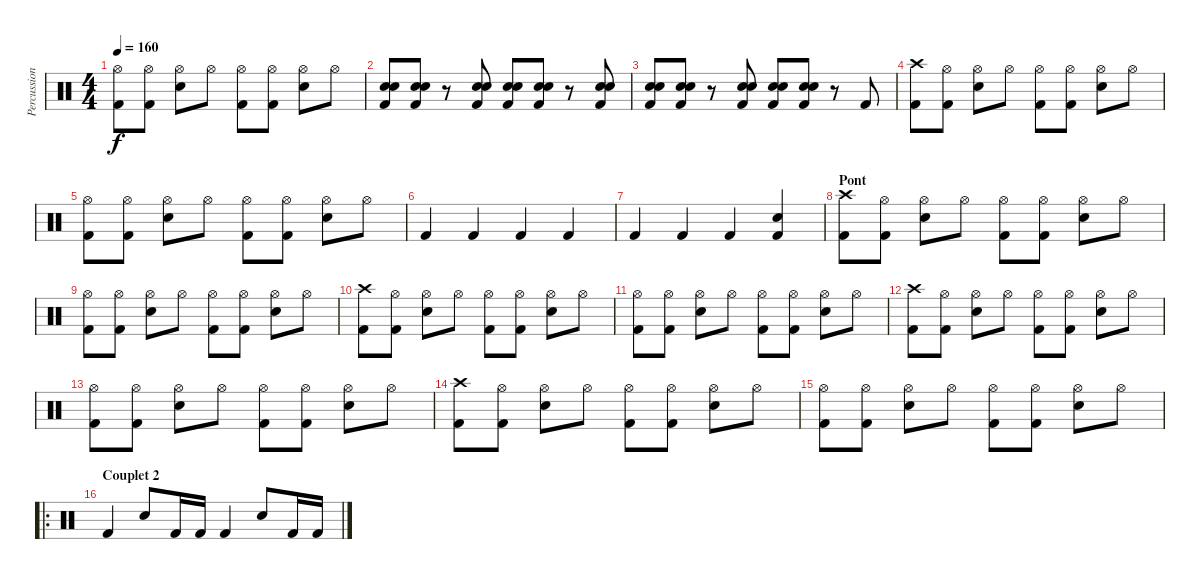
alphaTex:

\track ("Percussions" "Percussion") {instrument percussion}
\staff {score}
\articulation defaults
\ts (4 4)
\tempo 160
\clef neutral
\ks c
("Hi-Hat (open)" "Kick (hit) 2").8{dy f} ("Hi-Hat (open)" "Kick (hit) 2").8 ("Hi-Hat (open)" "Electric Snare (hit)").8 "Hi-Hat (open)".8 ("Hi-Hat (open)" "Kick (hit) 2").8 ("Hi-Hat (open)" "Kick (hit) 2").8 ("Hi-Hat (open)" "Electric Snare (hit)").8 "Hi-Hat (open)".8 |
("Electric Snare (hit)" "Electric Snare (hit)" "Kick (hit) 2").8 ("Electric Snare (hit)" "Electric Snare (hit)" "Kick (hit) 2").8 r.8 ("Electric Snare (hit)" "Electric Snare (hit)" "Kick (hit) 2").8 ("Electric Snare (hit)" "Electric Snare (hit)" "Kick (hit) 2").8 ("Electric Snare (hit)" "Electric Snare (hit)" "Kick (hit) 2").8 r.8 ("Electric Snare (hit)" "Electric Snare (hit)" "Kick (hit) 2").8 |
("Electric Snare (hit)" "Electric Snare (hit)" "Kick (hit) 2").8 ("Electric Snare (hit)" "Electric Snare (hit)" "Kick (hit) 2").8 r.8 ("Electric Snare (hit)" "Electric Snare (hit)" "Kick (hit) 2").8 ("Electric Snare (hit)" "Electric Snare (hit)" "Kick (hit) 2").8 ("Electric Snare (hit)" "Electric Snare (hit)" "Kick (hit) 2").8 r.8 "Kick (hit) 2".8 |
("Crash high (hit)" "Kick (hit) 2").8 ("Hi-Hat (open)" "Kick (hit) 2").8 ("Hi-Hat (open)" "Electric Snare (hit)").8 "Hi-Hat (open)".8 ("Hi-Hat (open)" "Kick (hit) 2").8 ("Hi-Hat (open)" "Kick (hit) 2").8 ("Hi-Hat (open)" "Electric Snare (hit)").8 "Hi-Hat (open)".8 |
("Hi-Hat (open)" "Kick (hit) 2").8 ("Hi-Hat (open)" "Kick (hit) 2").8 ("Hi-Hat (open)" "Electric Snare (hit)").8 "Hi-Hat (open)".8 ("Hi-Hat (open)" "Kick (hit) 2").8 ("Hi-Hat (open)" "Kick (hit) 2").8 ("Hi-Hat (open)" "Electric Snare (hit)").8 "Hi-Hat (open)".8 |
"Kick (hit) 2".4 "Kick (hit) 2".4 "Kick (hit) 2".4 "Kick (hit) 2".4 |
"Kick (hit) 2".4 "Kick (hit) 2".4 "Kick (hit) 2".4 ("Electric Snare (hit)" "Kick (hit) 2").4 |
\section ("" "Pont")
("Crash high (hit)" "Kick (hit) 2").8 ("Hi-Hat (open)" "Kick (hit) 2").8 ("Hi-Hat (open)" "Electric Snare (hit)").8 "Hi-Hat (open)".8 ("Hi-Hat (open)" "Kick (hit) 2").8 ("Hi-Hat (open)" "Kick (hit) 2").8 ("Hi-Hat (open)" "Electric Snare (hit)").8 "Hi-Hat (open)".8 |
("Hi-Hat (open)" "Kick (hit) 2").8 ("Hi-Hat (open)" "Kick (hit) 2").8 ("Hi-Hat (open)" "Electric Snare (hit)").8 "Hi-Hat (open)".8 ("Hi-Hat (open)" "Kick (hit) 2").8 ("Hi-Hat (open)" "Kick (hit) 2").8 ("Hi-Hat (open)" "Electric Snare (hit)").8 "Hi-Hat (open)".8 |
("Crash high (hit)" "Kick (hit) 2").8 ("Hi-Hat (open)" "Kick (hit) 2").8 ("Hi-Hat (open)" "Electric Snare (hit)").8 "Hi-Hat (open)".8 ("Hi-Hat (open)" "Kick (hit) 2").8 ("Hi-Hat (open)" "Kick (hit) 2").8 ("Hi-Hat (open)" "Electric Snare (hit)").8 "Hi-Hat (open)".8 |
("Hi-Hat (open)" "Kick (hit) 2").8 ("Hi-Hat (open)" "Kick (hit) 2").8 ("Hi-Hat (open)" "Electric Snare (hit)").8 "Hi-Hat (open)".8 ("Hi-Hat (open)" "Kick (hit) 2").8 ("Hi-Hat (open)" "Kick (hit) 2").8 ("Hi-Hat (open)" "Electric Snare (hit)").8 "Hi-Hat (open)".8 |
("Crash high (hit)" "Kick (hit) 2").8 ("Hi-Hat (open)" "Kick (hit) 2").8 ("Hi-Hat (open)" "Electric Snare (hit)").8 "Hi-Hat (open)".8 ("Hi-Hat (open)" "Kick (hit) 2").8 ("Hi-Hat (open)" "Kick (hit) 2").8 ("Hi-Hat (open)" "Electric Snare (hit)").8 "Hi-Hat (open)".8 |
("Hi-Hat (open)" "Kick (hit) 2").8 ("Hi-Hat (open)" "Kick (hit) 2").8 ("Hi-Hat (open)" "Electric Snare (hit)").8 "Hi-Hat (open)".8 ("Hi-Hat (open)" "Kick (hit) 2").8 ("Hi-Hat (open)" "Kick (hit) 2").8 ("Hi-Hat (open)" "Electric Snare (hit)").8 "Hi-Hat (open)".8 |
("Crash high (hit)" "Kick (hit) 2").8 ("Hi-Hat (open)" "Kick (hit) 2").8 ("Hi-Hat (open)" "Electric Snare (hit)").8 "Hi-Hat (open)".8 ("Hi-Hat (open)" "Kick (hit) 2").8 ("Hi-Hat (open)" "Kick (hit) 2").8 ("Hi-Hat (open)" "Electric Snare (hit)").8 "Hi-Hat (open)".8 |
("Hi-Hat (open)" "Kick (hit) 2").8 ("Hi-Hat (open)" "Kick (hit) 2").8 ("Hi-Hat (open)" "Electric Snare (hit)").8 "Hi-Hat (open)".8 ("Hi-Hat (open)" "Kick (hit) 2").8 ("Hi-Hat (open)" "Kick (hit) 2").8 ("Hi-Hat (open)" "Electric Snare (hit)").8 "Hi-Hat (open)".8 |
\ro
\section ("" "Couplet 2")
"Kick (hit) 2".4{volume 10} "Electric Snare (hit)".8 "Kick (hit) 2".16 "Kick (hit) 2".16 "Kick (hit) 2".4 "Electric Snare (hit)".8 "Kick (hit) 2".16 "Kick (hit) 2".16
